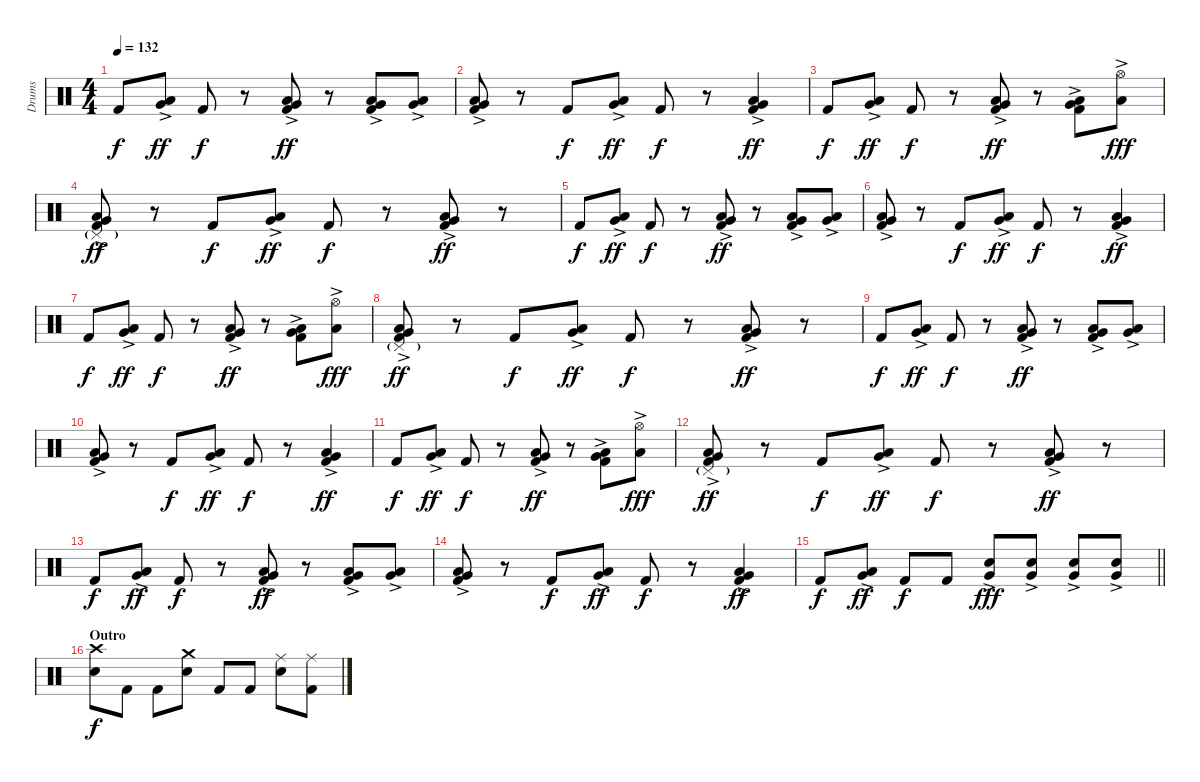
\track ("Drums" "Drums") {instrument percussion}
\staff {score}
\articulation defaults
\ts (4 4)
\tempo 132
\clef neutral
\ks c "Kick (hit) 2".8{dy f}
("Low Tom (hit)"{ac} "Very Low Tom (hit)").8{dy ff} "Kick (hit) 2".8{dy f} r.8 ("Low Tom (hit)"{ac} "Very Low Tom (hit)" "Kick (hit) 2").8{dy ff} r.8 ("Low Tom (hit)"{ac} "Very Low Tom (hit)" "Kick (hit) 2").8 ("Low Tom (hit)"{ac} "Very Low Tom (hit)").8 |
("Low Tom (hit)"{ac} "Very Low Tom (hit)" "Kick (hit) 2").8 r.8 "Kick (hit) 2".8{dy f} ("Low Tom (hit)"{ac} "Very Low Tom (hit)").8{dy ff} "Kick (hit) 2".8{dy f} r.8 ("Low Tom (hit)"{ac} "Very Low Tom (hit)" "Kick (hit) 2").4{dy ff} |
"Kick (hit) 2".8{dy f} ("Low Tom (hit)"{ac} "Very Low Tom (hit)").8{dy ff} "Kick (hit) 2".8{dy f} r.8 ("Low Tom (hit)"{ac} "Very Low Tom (hit)" "Kick (hit) 2").8{dy ff} r.8 ("Low Tom (hit)"{ac} "Very Low Tom (hit)" "Kick (hit) 2").8 ("Hi-Hat (open)" "Low Tom (hit)"{ac}).8{dy fff} |
("Pedal Hi-Hat (hit)"{g} "Low Tom (hit)"{ac} "Very Low Tom (hit)" "Kick (hit) 2").8{dy ff} r.8 "Kick (hit) 2".8{dy f} ("Low Tom (hit)"{ac} "Very Low Tom (hit)").8{dy ff} "Kick (hit) 2".8{dy f} r.8 ("Low Tom (hit)"{ac} "Very Low Tom (hit)" "Kick (hit) 2").8{dy ff} r.8 |
"Kick (hit) 2".8{dy f} ("Low Tom (hit)"{ac} "Very Low Tom (hit)").8{dy ff} "Kick (hit) 2".8{dy f} r.8 ("Low Tom (hit)"{ac} "Very Low Tom (hit)" "Kick (hit) 2").8{dy ff} r.8 ("Low Tom (hit)"{ac} "Very Low Tom (hit)" "Kick (hit) 2").8 ("Low Tom (hit)"{ac} "Very Low Tom (hit)").8 |
("Low Tom (hit)"{ac} "Very Low Tom (hit)" "Kick (hit) 2").8 r.8 "Kick (hit) 2".8{dy f} ("Low Tom (hit)"{ac} "Very Low Tom (hit)").8{dy ff} "Kick (hit) 2".8{dy f} r.8 ("Low Tom (hit)"{ac} "Very Low Tom (hit)" "Kick (hit) 2").4{dy ff} |
"Kick (hit) 2".8{dy f} ("Low Tom (hit)"{ac} "Very Low Tom (hit)").8{dy ff} "Kick (hit) 2".8{dy f} r.8 ("Low Tom (hit)"{ac} "Very Low Tom (hit)" "Kick (hit) 2").8{dy ff} r.8 ("Low Tom (hit)"{ac} "Very Low Tom (hit)" "Kick (hit) 2").8 ("Hi-Hat (open)" "Low Tom (hit)"{ac}).8{dy fff} |
("Pedal Hi-Hat (hit)"{g} "Low Tom (hit)"{ac} "Very Low Tom (hit)" "Kick (hit) 2").8{dy ff} r.8 "Kick (hit) 2".8{dy f} ("Low Tom (hit)"{ac} "Very Low Tom (hit)").8{dy ff} "Kick (hit) 2".8{dy f} r.8 ("Low Tom (hit)"{ac} "Very Low Tom (hit)" "Kick (hit) 2").8{dy ff} r.8 |
"Kick (hit) 2".8{dy f} ("Low Tom (hit)"{ac} "Very Low Tom (hit)").8{dy ff} "Kick (hit) 2".8{dy f} r.8 ("Low Tom (hit)"{ac} "Very Low Tom (hit)" "Kick (hit) 2").8{dy ff} r.8 ("Low Tom (hit)"{ac} "Very Low Tom (hit)" "Kick (hit) 2").8 ("Low Tom (hit)"{ac} "Very Low Tom (hit)").8 |
("Low Tom (hit)"{ac} "Very Low Tom (hit)" "Kick (hit) 2").8 r.8 "Kick (hit) 2".8{dy f} ("Low Tom (hit)"{ac} "Very Low Tom (hit)").8{dy ff} "Kick (hit) 2".8{dy f} r.8 ("Low Tom (hit)"{ac} "Very Low Tom (hit)" "Kick (hit) 2").4{dy ff} |
"Kick (hit) 2".8{dy f} ("Low Tom (hit)"{ac} "Very Low Tom (hit)").8{dy ff} "Kick (hit) 2".8{dy f} r.8 ("Low Tom (hit)"{ac} "Very Low Tom (hit)" "Kick (hit) 2").8{dy ff} r.8 ("Low Tom (hit)"{ac} "Very Low Tom (hit)" "Kick (hit) 2").8 ("Hi-Hat (open)" "Low Tom (hit)"{ac}).8{dy fff} |
("Pedal Hi-Hat (hit)"{g} "Low Tom (hit)"{ac} "Very Low Tom (hit)" "Kick (hit) 2").8{dy ff} r.8 "Kick (hit) 2".8{dy f} ("Low Tom (hit)"{ac} "Very Low Tom (hit)").8{dy ff} "Kick (hit) 2".8{dy f} r.8 ("Low Tom (hit)"{ac} "Very Low Tom (hit)" "Kick (hit) 2").8{dy ff} r.8 |
"Kick (hit) 2".8{dy f} ("Low Tom (hit)"{ac} "Very Low Tom (hit)").8{dy ff} "Kick (hit) 2".8{dy f} r.8 ("Low Tom (hit)"{ac} "Very Low Tom (hit)" "Kick (hit) 2").8{dy ff} r.8 ("Low Tom (hit)"{ac} "Very Low Tom (hit)" "Kick (hit) 2").8 ("Low Tom (hit)"{ac} "Very Low Tom (hit)").8 |
("Low Tom (hit)"{ac} "Very Low Tom (hit)" "Kick (hit) 2").8 r.8 "Kick (hit) 2".8{dy f} ("Low Tom (hit)"{ac} "Very Low Tom (hit)").8{dy ff} "Kick (hit) 2".8{dy f} r.8 ("Low Tom (hit)"{ac} "Very Low Tom (hit)" "Kick (hit) 2").4{dy ff} |
\barLineRight lightlight "Kick (hit) 2".8{dy f}
("Low Tom (hit)"{ac} "Very Low Tom (hit)").8{dy ff} "Kick (hit) 2".8{dy f} "Kick (hit) 2".8 ("Snare (hit) 2" "Very Low Tom (hit)"{ac}).8{dy fff} ("Snare (hit) 2" "Very Low Tom (hit)"{ac}).8 ("Snare (hit) 2" "Very Low Tom (hit)"{ac}).8 ("Snare (hit) 2" "Very Low Tom (hit)"{ac}).8 |
\section ("" "Outro")
("Crash high (hit)" "Snare (hit) 2").8{dy f} "Kick (hit) 2".8 "Kick (hit) 2".8 ("Crash medium (hit)" "Snare (hit) 2").8 "Kick (hit) 2".8 "Kick (hit) 2".8 ("Ride (middle)" "Snare (hit) 2").8 ("Ride (middle)" "Kick (hit) 2").8
